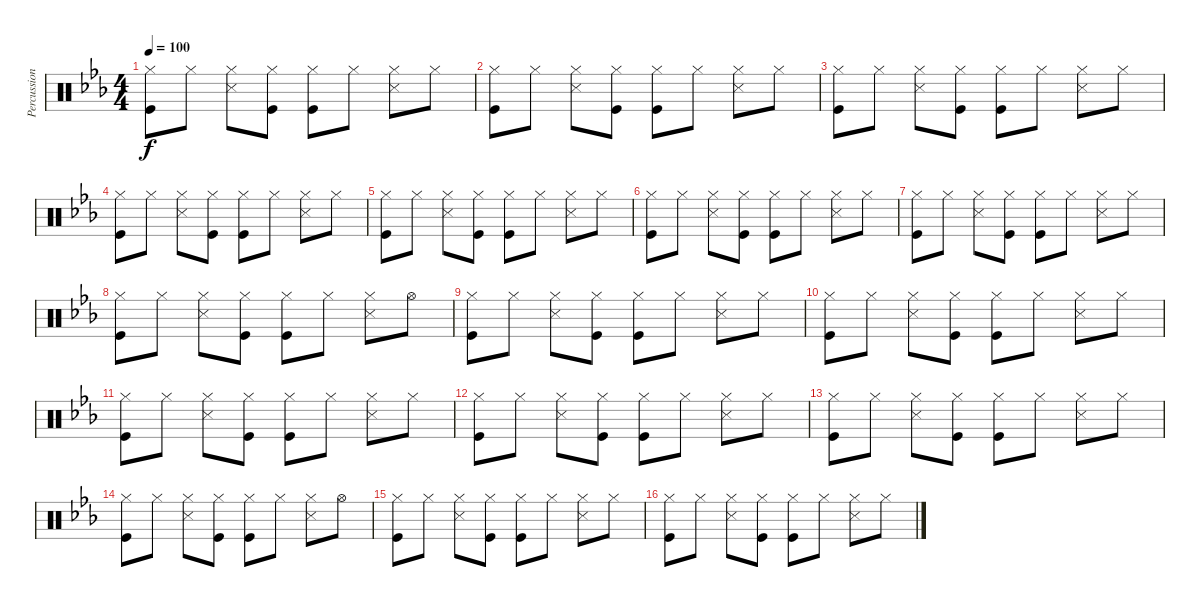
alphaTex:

\track ("Percussion" "Percussion") {instrument percussion}
\staff {score}
\articulation defaults
\ts (4 4)
\tempo 100
\clef neutral
\ks eb
("Hi-Hat (closed)" "Kick (hit)").8{dy f} "Hi-Hat (closed)".8 ("Hi-Hat (closed)" "Snare (side stick) 3").8 ("Hi-Hat (closed)" "Kick (hit)").8 ("Hi-Hat (closed)" "Kick (hit)").8 "Hi-Hat (closed)".8 ("Hi-Hat (closed)" "Snare (side stick) 3").8 "Hi-Hat (closed)".8 |
("Hi-Hat (closed)" "Kick (hit)").8 "Hi-Hat (closed)".8 ("Hi-Hat (closed)" "Snare (side stick) 3").8 ("Hi-Hat (closed)" "Kick (hit)").8 ("Hi-Hat (closed)" "Kick (hit)").8 "Hi-Hat (closed)".8 ("Hi-Hat (closed)" "Snare (side stick) 3").8 "Hi-Hat (closed)".8 |
("Hi-Hat (closed)" "Kick (hit)").8 "Hi-Hat (closed)".8 ("Hi-Hat (closed)" "Snare (side stick) 3").8 ("Hi-Hat (closed)" "Kick (hit)").8 ("Hi-Hat (closed)" "Kick (hit)").8 "Hi-Hat (closed)".8 ("Hi-Hat (closed)" "Snare (side stick) 3").8 "Hi-Hat (closed)".8 |
("Hi-Hat (closed)" "Kick (hit)").8 "Hi-Hat (closed)".8 ("Hi-Hat (closed)" "Snare (side stick) 3").8 ("Hi-Hat (closed)" "Kick (hit)").8 ("Hi-Hat (closed)" "Kick (hit)").8 "Hi-Hat (closed)".8 ("Hi-Hat (closed)" "Snare (side stick) 3").8 "Hi-Hat (closed)".8 |
("Hi-Hat (closed)" "Kick (hit)").8 "Hi-Hat (closed)".8 ("Hi-Hat (closed)" "Snare (side stick) 3").8 ("Hi-Hat (closed)" "Kick (hit)").8 ("Hi-Hat (closed)" "Kick (hit)").8 "Hi-Hat (closed)".8 ("Hi-Hat (closed)" "Snare (side stick) 3").8 "Hi-Hat (closed)".8 |
("Hi-Hat (closed)" "Kick (hit)").8 "Hi-Hat (closed)".8 ("Hi-Hat (closed)" "Snare (side stick) 3").8 ("Hi-Hat (closed)" "Kick (hit)").8 ("Hi-Hat (closed)" "Kick (hit)").8 "Hi-Hat (closed)".8 ("Hi-Hat (closed)" "Snare (side stick) 3").8 "Hi-Hat (closed)".8 |
("Hi-Hat (closed)" "Kick (hit)").8 "Hi-Hat (closed)".8 ("Hi-Hat (closed)" "Snare (side stick) 3").8 ("Hi-Hat (closed)" "Kick (hit)").8 ("Hi-Hat (closed)" "Kick (hit)").8 "Hi-Hat (closed)".8 ("Hi-Hat (closed)" "Snare (side stick) 3").8 "Hi-Hat (closed)".8 |
("Hi-Hat (closed)" "Kick (hit)").8 "Hi-Hat (closed)".8 ("Hi-Hat (closed)" "Snare (side stick) 3").8 ("Hi-Hat (closed)" "Kick (hit)").8 ("Hi-Hat (closed)" "Kick (hit)").8 "Hi-Hat (closed)".8 ("Hi-Hat (closed)" "Snare (side stick) 3").8 "Hi-Hat (open)".8 |
("Hi-Hat (closed)" "Kick (hit)").8 "Hi-Hat (closed)".8 ("Hi-Hat (closed)" "Snare (side stick) 3").8 ("Hi-Hat (closed)" "Kick (hit)").8 ("Hi-Hat (closed)" "Kick (hit)").8 "Hi-Hat (closed)".8 ("Hi-Hat (closed)" "Snare (side stick) 3").8 "Hi-Hat (closed)".8 |
("Hi-Hat (closed)" "Kick (hit)").8 "Hi-Hat (closed)".8 ("Hi-Hat (closed)" "Snare (side stick) 3").8 ("Hi-Hat (closed)" "Kick (hit)").8 ("Hi-Hat (closed)" "Kick (hit)").8 "Hi-Hat (closed)".8 ("Hi-Hat (closed)" "Snare (side stick) 3").8 "Hi-Hat (closed)".8 |
("Hi-Hat (closed)" "Kick (hit)").8 "Hi-Hat (closed)".8 ("Hi-Hat (closed)" "Snare (side stick) 3").8 ("Hi-Hat (closed)" "Kick (hit)").8 ("Hi-Hat (closed)" "Kick (hit)").8 "Hi-Hat (closed)".8 ("Hi-Hat (closed)" "Snare (side stick) 3").8 "Hi-Hat (closed)".8 |
("Hi-Hat (closed)" "Kick (hit)").8 "Hi-Hat (closed)".8 ("Hi-Hat (closed)" "Snare (side stick) 3").8 ("Hi-Hat (closed)" "Kick (hit)").8 ("Hi-Hat (closed)" "Kick (hit)").8 "Hi-Hat (closed)".8 ("Hi-Hat (closed)" "Snare (side stick) 3").8 "Hi-Hat (closed)".8 |
("Hi-Hat (closed)" "Kick (hit)").8 "Hi-Hat (closed)".8 ("Hi-Hat (closed)" "Snare (side stick) 3").8 ("Hi-Hat (closed)" "Kick (hit)").8 ("Hi-Hat (closed)" "Kick (hit)").8 "Hi-Hat (closed)".8 ("Hi-Hat (closed)" "Snare (side stick) 3").8 "Hi-Hat (closed)".8 |
("Hi-Hat (closed)" "Kick (hit)").8 "Hi-Hat (closed)".8 ("Hi-Hat (closed)" "Snare (side stick) 3").8 ("Hi-Hat (closed)" "Kick (hit)").8 ("Hi-Hat (closed)" "Kick (hit)").8 "Hi-Hat (closed)".8 ("Hi-Hat (closed)" "Snare (side stick) 3").8 "Hi-Hat (open)".8 |
("Hi-Hat (closed)" "Kick (hit)").8 "Hi-Hat (closed)".8 ("Hi-Hat (closed)" "Snare (side stick) 3").8 ("Hi-Hat (closed)" "Kick (hit)").8 ("Hi-Hat (closed)" "Kick (hit)").8 "Hi-Hat (closed)".8 ("Hi-Hat (closed)" "Snare (side stick) 3").8 "Hi-Hat (closed)".8 |
("Hi-Hat (closed)" "Kick (hit)").8 "Hi-Hat (closed)".8 ("Hi-Hat (closed)" "Snare (side stick) 3").8 ("Hi-Hat (closed)" "Kick (hit)").8 ("Hi-Hat (closed)" "Kick (hit)").8 "Hi-Hat (closed)".8 ("Hi-Hat (closed)" "Snare (side stick) 3").8 "Hi-Hat (closed)".8
